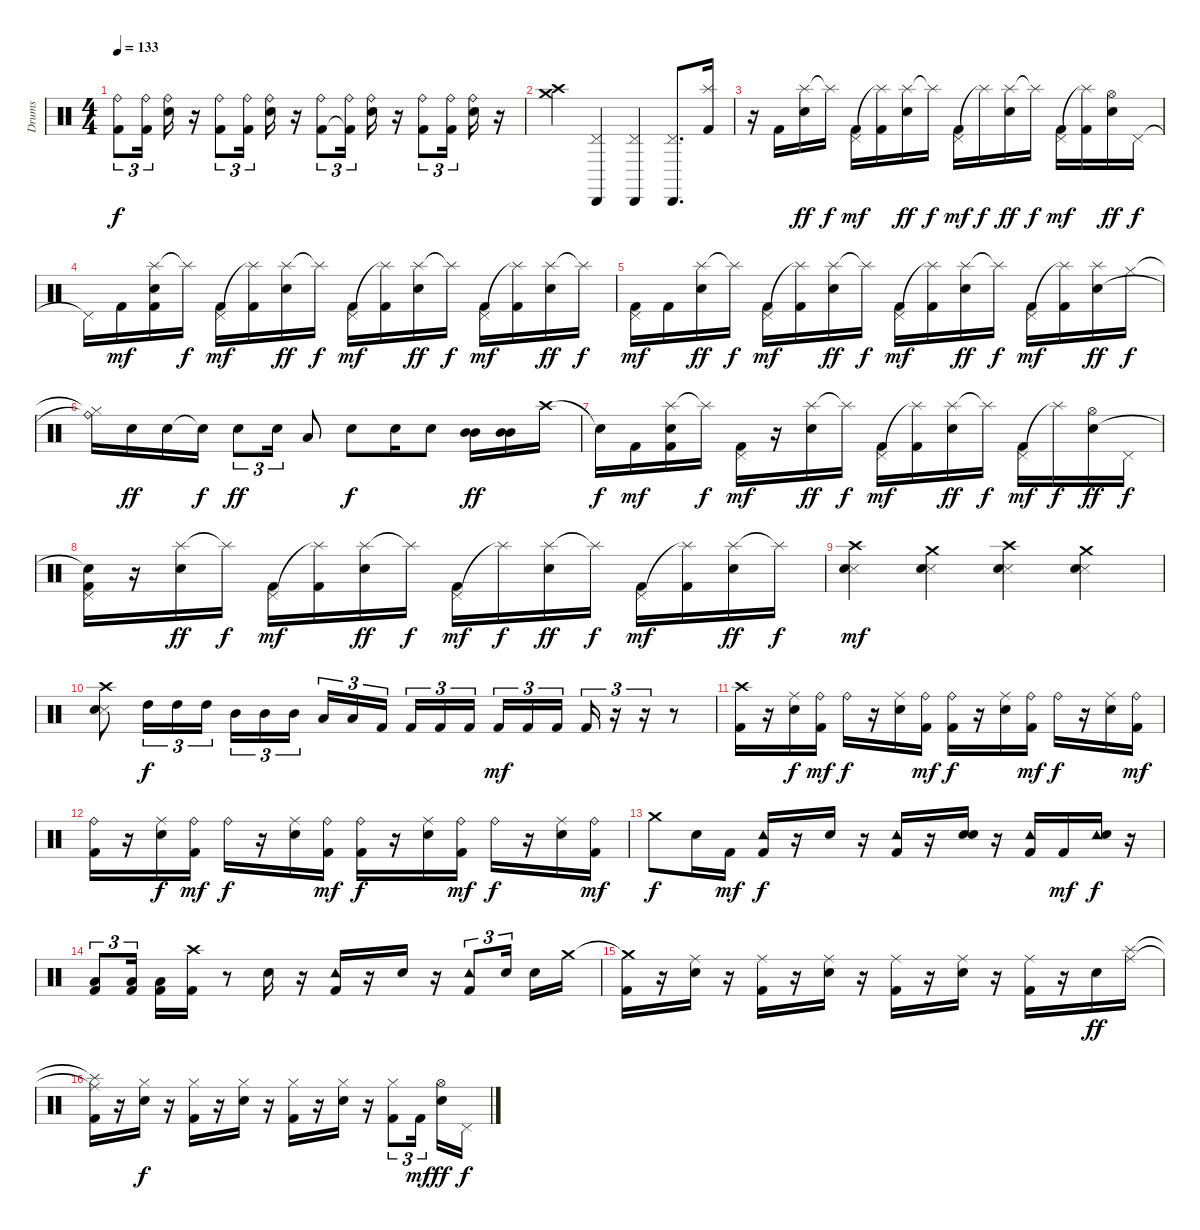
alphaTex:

\track ("Drums" "Drums") {instrument percussion}
\staff {score}
\articulation defaults
\ts (4 4)
\tempo 133
\clef neutral
\ks c
("Ride (bell)" "Kick (hit) 2").8{tu (3 2) dy f} ("Ride (bell)" "Kick (hit) 2").16{tu (3 2)} ("Ride (bell)" "Snare (hit) 2").16 r.16 ("Ride (bell)" "Kick (hit) 2").8{tu (3 2)} ("Ride (bell)" "Kick (hit) 2").16{tu (3 2)} ("Ride (bell)" "Snare (hit) 2").16 r.16 ("Ride (bell)" "Kick (hit) 2").8{tu (3 2)} ("Ride (bell)" "Kick (hit) 2"{t}).16{tu (3 2)} ("Ride (bell)" "Snare (hit) 2").16 r.16 ("Ride (bell)" "Kick (hit) 2").8{tu (3 2)} ("Ride (bell)" "Kick (hit) 2").16{tu (3 2)} ("Ride (bell)" "Snare (hit) 2").16 r.16 |
("Crash medium (hit)" "Crash high (hit)").4 ("Cabasa (hit)" "Pedal Hi-Hat (hit)").4 ("Cabasa (hit)" "Pedal Hi-Hat (hit)").4 ("Cabasa (hit)" "Pedal Hi-Hat (hit)").8{d} ("Splash (hit)" "Kick (hit) 2").16 |
r.16 "Kick (hit) 2".16 ("Splash (hit)" "Snare (hit) 2").16{dy ff} "Splash (hit)"{t}.16{dy f} ("Pedal Hi-Hat (hit)" "Kick (hit) 2").16{dy mf} ("Splash (hit)"{t} "Kick (hit) 2").16 ("Splash (hit)" "Snare (hit) 2").16{dy ff} "Splash (hit)"{t}.16{dy f} ("Pedal Hi-Hat (hit)" "Kick (hit) 2").16{dy mf} "Splash (hit)"{t}.16{dy f} ("Splash (hit)" "Snare (hit) 2").16{dy ff} "Splash (hit)"{t}.16{dy f} ("Pedal Hi-Hat (hit)" "Kick (hit) 2").16{dy mf} ("Splash (hit)"{t} "Kick (hit) 2").16 ("Hi-Hat (open)" "Snare (hit) 2").16{dy ff} "Pedal Hi-Hat (hit)".16{dy f} |
"Pedal Hi-Hat (hit)"{t}.16 "Kick (hit) 2".16{dy mf} ("Splash (hit)" "Snare (hit) 2" "Kick (hit) 2").16 "Splash (hit)"{t}.16{dy f} ("Pedal Hi-Hat (hit)" "Kick (hit) 2").16{dy mf} ("Splash (hit)"{t} "Kick (hit) 2").16 ("Splash (hit)" "Snare (hit) 2").16{dy ff} "Splash (hit)"{t}.16{dy f} ("Pedal Hi-Hat (hit)" "Kick (hit) 2").16{dy mf} ("Splash (hit)"{t} "Kick (hit) 2").16 ("Splash (hit)" "Snare (hit) 2").16{dy ff} "Splash (hit)"{t}.16{dy f} ("Pedal Hi-Hat (hit)" "Kick (hit) 2").16{dy mf} ("Splash (hit)"{t} "Kick (hit) 2").16 ("Splash (hit)" "Snare (hit) 2").16{dy ff} "Splash (hit)"{t}.16{dy f} |
("Pedal Hi-Hat (hit)" "Kick (hit) 2").16{dy mf} "Kick (hit) 2".16 ("Splash (hit)" "Snare (hit) 2").16{dy ff} "Splash (hit)"{t}.16{dy f} ("Pedal Hi-Hat (hit)" "Kick (hit) 2").16{dy mf} ("Splash (hit)"{t} "Kick (hit) 2").16 ("Splash (hit)" "Snare (hit) 2").16{dy ff} "Splash (hit)"{t}.16{dy f} ("Pedal Hi-Hat (hit)" "Kick (hit) 2").16{dy mf} ("Splash (hit)"{t} "Kick (hit) 2").16 ("Splash (hit)" "Snare (hit) 2").16{dy ff} "Splash (hit)"{t}.16{dy f} ("Pedal Hi-Hat (hit)" "Kick (hit) 2").16{dy mf} ("Splash (hit)"{t} "Kick (hit) 2").16 ("Splash (hit)" "Snare (hit) 2").16{dy ff} "Hi-Hat (closed)".16{dy f} |
("Hi-Hat (closed)"{t} "Ride (bell)"{t}).16 "Snare (hit) 2".16{dy ff} "Snare (hit) 2".16 "Electric Snare (hit)"{t}.16{dy f} "Snare (hit) 2".8{tu (3 2) dy ff} "Snare (hit) 2".16{tu (3 2)} "Low Tom (hit)".8 "Snare (hit) 2".8{dy f} "Snare (hit) 2".16 "Snare (hit) 2".8 ("Mid Tom (hit)" "Mid Tom (hit)").16{dy ff} ("Mid Tom (hit)" "Mid Tom (hit)").16 "Crash high (hit)".16 |
"Snare (hit)"{t}.16{dy f} "Kick (hit) 2".16{dy mf} ("Splash (hit)" "Snare (hit) 2" "Kick (hit) 2").16 "Splash (hit)"{t}.16{dy f} ("Pedal Hi-Hat (hit)" "Kick (hit) 2").16{dy mf} r.16 ("Splash (hit)" "Snare (hit) 2").16{dy ff} "Splash (hit)"{t}.16{dy f} ("Pedal Hi-Hat (hit)" "Kick (hit) 2").16{dy mf} ("Splash (hit)"{t} "Kick (hit) 2").16 ("Splash (hit)" "Snare (hit) 2").16{dy ff} "Splash (hit)"{t}.16{dy f} ("Pedal Hi-Hat (hit)" "Kick (hit) 2").16{dy mf} "Splash (hit)"{t}.16{dy f} ("Hi-Hat (open)" "Snare (hit) 2").16{dy ff} "Pedal Hi-Hat (hit)".16{dy f} |
("Pedal Hi-Hat (hit)" "Snare (hit)"{t} "Kick (hit) 2").16 r.16 ("Splash (hit)" "Snare (hit) 2").16{dy ff} "Splash (hit)"{t}.16{dy f} ("Pedal Hi-Hat (hit)" "Kick (hit) 2").16{dy mf} ("Splash (hit)"{t} "Kick (hit) 2").16 ("Splash (hit)" "Snare (hit) 2").16{dy ff} "Splash (hit)"{t}.16{dy f} ("Pedal Hi-Hat (hit)" "Kick (hit) 2").16{dy mf} "Splash (hit)"{t}.16{dy f} ("Splash (hit)" "Snare (hit) 2").16{dy ff} "Splash (hit)"{t}.16{dy f} ("Pedal Hi-Hat (hit)" "Kick (hit) 2").16{dy mf} ("Splash (hit)"{t} "Kick (hit) 2").16 ("Splash (hit)" "Snare (hit) 2").16{dy ff} "Splash (hit)"{t}.16{dy f} |
("Crash high (hit)" "Snare (side stick) 3" "Snare (hit) 2").4{dy mf} ("Crash medium (hit)" "Snare (side stick) 3" "Snare (hit) 2").4 ("Crash high (hit)" "Snare (side stick) 3" "Snare (hit) 2").4 ("Crash medium (hit)" "Snare (side stick) 3" "Snare (hit) 2").4 |
("Crash high (hit)" "Snare (side stick) 3" "Snare (hit) 2").8 "High Tom (hit)".16{tu (3 2) dy f} "High Tom (hit)".16{tu (3 2)} "High Tom (hit)".16{tu (3 2)} "Mid Tom (hit)".16{tu (3 2)} "Mid Tom (hit)".16{tu (3 2)} "Mid Tom (hit)".16{tu (3 2) beam splitsecondary} "Low Tom (hit)".16{tu (3 2)} "Low Tom (hit)".16{tu (3 2)} "Kick (hit) 2".16{tu (3 2)} "Kick (hit) 2".16{tu (3 2)} "Kick (hit) 2".16{tu (3 2)} "Kick (hit) 2".16{tu (3 2) beam splitsecondary} "Kick (hit) 2".16{tu (3 2) dy mf} "Kick (hit) 2".16{tu (3 2)} "Kick (hit) 2".16{tu (3 2)} "Kick (hit) 2".16{tu (3 2)} r.16{tu (3 2)} r.16{tu (3 2)} r.8 |
("Crash high (hit)" "Kick (hit) 2").16 r.16 ("Ride (middle)" "Snare (hit) 2").16{dy f} ("Ride (bell)" "Kick (hit) 2").16{dy mf} "Ride (bell)".16{dy f} r.16 ("Ride (middle)" "Snare (hit) 2").16 ("Ride (bell)" "Kick (hit) 2").16{dy mf} ("Ride (bell)" "Kick (hit) 2").16{dy f} r.16 ("Ride (middle)" "Snare (hit) 2").16 ("Ride (bell)" "Kick (hit) 2").16{dy mf} "Ride (bell)".16{dy f} r.16 ("Ride (middle)" "Snare (hit) 2").16 ("Ride (bell)" "Kick (hit) 2").16{dy mf} |
("Ride (bell)" "Kick (hit) 2").16 r.16 ("Ride (middle)" "Snare (hit) 2").16{dy f} ("Ride (bell)" "Kick (hit) 2").16{dy mf} "Ride (bell)".16{dy f} r.16 ("Ride (middle)" "Snare (hit) 2").16 ("Ride (bell)" "Kick (hit) 2").16{dy mf} ("Ride (bell)" "Kick (hit) 2").16{dy f} r.16 ("Ride (middle)" "Snare (hit) 2").16 ("Ride (bell)" "Kick (hit) 2").16{dy mf} "Ride (bell)".16{dy f} r.16 ("Ride (middle)" "Snare (hit) 2").16 ("Ride (bell)" "Kick (hit) 2").16{dy mf} |
"Crash medium (hit)".8{dy f} "Snare (hit) 2".16 "Kick (hit) 2".16{dy mf} ("Tambourine (hit)" "Kick (hit) 2").16{dy f} r.16 "Snare (hit) 2".16 r.16 ("Tambourine (hit)" "Kick (hit) 2").16 r.16 ("Snare (hit) 2" "Snare (hit) 2").16 r.16 ("Tambourine (hit)" "Kick (hit) 2").16 "Kick (hit) 2".16{dy mf} ("Tambourine (hit)" "Snare (hit) 2").16{dy f} r.16 |
("Low Tom (hit)" "Kick (hit) 2").8{tu (3 2)} ("Low Tom (hit)" "Kick (hit) 2").16{tu (3 2) beam splitsecondary} ("Low Tom (hit)" "Kick (hit) 2").16 ("Crash high (hit)" "Kick (hit) 2").16 r.8 "Snare (hit) 2".16 r.16 ("Tambourine (hit)" "Kick (hit) 2").16 r.16 "Snare (hit) 2".16 r.16 ("Tambourine (hit)" "Kick (hit) 2").8{tu (3 2)} "Snare (hit) 2".16{tu (3 2) beam splitsecondary} "Snare (hit) 2".16 "Crash medium (hit)".16 |
("Crash medium (hit)"{t} "Kick (hit) 2").16 r.16 ("Ride (middle)" "Snare (hit) 2").16 r.16 ("Ride (middle)" "Kick (hit) 2").16 r.16 ("Ride (middle)" "Snare (hit) 2").16 r.16 ("Ride (middle)" "Kick (hit) 2").16 r.16 ("Ride (middle)" "Snare (hit) 2").16 r.16 ("Ride (middle)" "Kick (hit) 2").16 r.16 "Snare (hit) 2".16{dy ff} ("Ride (middle)" "Splash (hit)").16 |
("Ride (middle)"{t} "Splash (hit)"{t} "Kick (hit) 2").16 r.16 ("Hi-Hat (closed)" "Snare (hit) 2").16{dy f} r.16 ("Hi-Hat (closed)" "Kick (hit) 2").16 r.16 ("Hi-Hat (closed)" "Snare (hit) 2").16 r.16 ("Hi-Hat (closed)" "Kick (hit) 2").16 r.16 ("Hi-Hat (closed)" "Snare (hit) 2").16 r.16 ("Hi-Hat (closed)" "Kick (hit) 2").8{tu (3 2)} "Kick (hit) 2".16{tu (3 2) dy mf beam splitsecondary} ("Hi-Hat (open)" "Snare (hit) 2").16{dy ff} "Pedal Hi-Hat (hit)".16{dy f}
